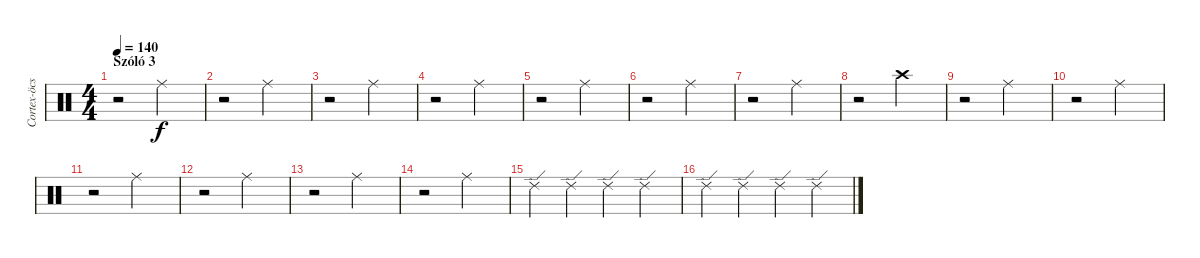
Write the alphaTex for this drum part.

\track ("Cortex-öcsi :)" "Cortex-öcs") {instrument percussion}
\staff {score}
\articulation defaults
\ts (4 4)
\section ("" "Szóló 3")
\tempo 140
\clef neutral
\ks c
r.2{dy f} "Ride (middle)".2 |
r.2 "Ride (middle)".2 |
r.2 "Ride (middle)".2 |
r.2 "Ride (middle)".2 |
r.2 "Ride (middle)".2 |
r.2 "Ride (middle)".2 |
r.2 "Ride (middle)".2 |
r.2 "Crash high (hit)".2 |
r.2 "Ride (middle)".2 |
r.2 "Ride (middle)".2 |
r.2 "Ride (middle)".2 |
r.2 "Ride (middle)".2 |
r.2 "Ride (middle)".2 |
r.2 "Ride (middle)".2 |
"Ride (edge) 2".4 "Ride (edge) 2".4 "Ride (edge) 2".4 "Ride (edge) 2".4 |
"Ride (edge) 2".4 "Ride (edge) 2".4 "Ride (edge) 2".4 "Ride (edge) 2".4
